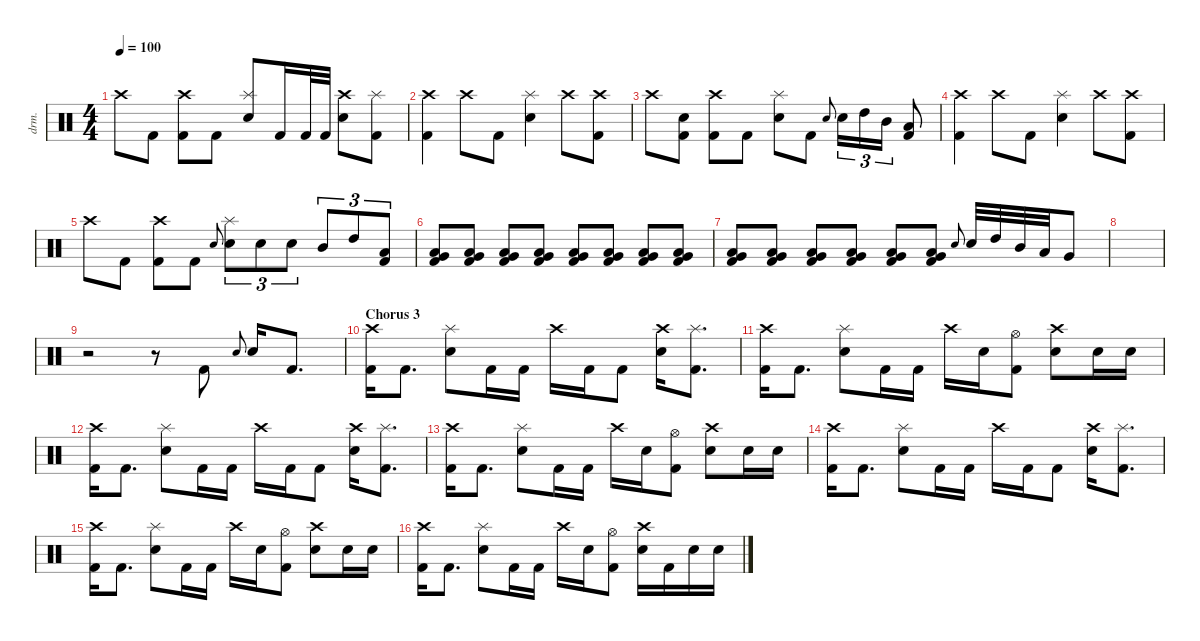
\defaultSystemsLayout 4
\hideDynamics
\bracketExtendMode nobrackets
\otherSystemsTrackNameOrientation horizontal
\track ("Jorge" "drm.") {instrument percussion}
\staff {score}
\articulation defaults
\ts (4 4)
\tempo 100
\clef neutral
\ks c "Crash high (hit)".8{dy mf beam Down} "Kick (hit) 2".8{beam Down}
("Kick (hit) 2" "Crash high (hit)").8{beam Down} "Kick (hit) 2".8{beam Down} ("Splash (hit)" "Snare (hit) 2").8{beam Up} "Kick (hit) 2".16{beam Up} "Kick (hit) 2".32{beam Up} "Kick (hit) 2".32{beam Up} ("Crash high (hit)" "Snare (hit) 2").8{beam Down} ("Kick (hit) 2" "Splash (hit)").8{beam Down} |
("Kick (hit) 2" "Crash high (hit)").4{beam Down} "Crash high (hit)".8{beam Down} "Kick (hit) 2".8{beam Down} ("Snare (hit) 2" "Splash (hit)").4{beam Down} "Crash high (hit)".8{beam Down} ("Crash high (hit)" "Kick (hit) 2").8{beam Down} |
"Crash high (hit)".8{beam Down} ("Kick (hit) 2" "Snare (hit) 2").8{beam Down} ("Kick (hit) 2" "Crash high (hit)").8{beam Down} "Kick (hit) 2".8{beam Down} ("Splash (hit)" "Snare (hit) 2").8{beam Down} "Kick (hit) 2".8{beam Down} "Snare (hit) 2".8{gr onbeat beam Up} "Snare (hit) 2".16{tu (3 2) beam Down} "High Tom (hit)".16{tu (3 2) beam Down} "Mid Tom (hit)".16{tu (3 2) beam Down} ("Low Tom (hit)" "Kick (hit) 2").8{beam Up} |
("Kick (hit) 2" "Crash high (hit)").4{beam Down} "Crash high (hit)".8{beam Down} "Kick (hit) 2".8{beam Down} ("Snare (hit) 2" "Splash (hit)").4{beam Down} "Crash high (hit)".8{beam Down} ("Crash high (hit)" "Kick (hit) 2").8{beam Down} |
"Crash high (hit)".8{beam Down} "Kick (hit) 2".8{beam Down} ("Kick (hit) 2" "Crash high (hit)").8{beam Down} "Kick (hit) 2".8{beam Down} "Snare (hit) 2".8{gr onbeat beam Up} ("Snare (hit) 2" "Splash (hit)").8{tu (3 2) beam Down} "Snare (hit) 2".8{tu (3 2) beam Down} "Snare (hit) 2".8{tu (3 2) beam Down} "Mid Tom (hit)".8{tu (3 2) beam Up} "High Tom (hit)".8{tu (3 2) beam Up} ("Low Tom (hit)" "Kick (hit) 2").8{tu (3 2) beam Up} |
("Kick (hit) 2" "Very Low Tom (hit)" "Low Tom (hit)").8{beam Up} ("Kick (hit) 2" "Very Low Tom (hit)" "Low Tom (hit)").8{beam Up} ("Kick (hit) 2" "Very Low Tom (hit)" "Low Tom (hit)").8{beam Up} ("Kick (hit) 2" "Very Low Tom (hit)" "Low Tom (hit)").8{beam Up} ("Kick (hit) 2" "Very Low Tom (hit)" "Low Tom (hit)").8{beam Up} ("Kick (hit) 2" "Very Low Tom (hit)" "Low Tom (hit)").8{beam Up} ("Kick (hit) 2" "Very Low Tom (hit)" "Low Tom (hit)").8{beam Up} ("Kick (hit) 2" "Very Low Tom (hit)" "Low Tom (hit)").8{beam Up} |
("Kick (hit) 2" "Very Low Tom (hit)" "Low Tom (hit)").8{beam Up} ("Kick (hit) 2" "Very Low Tom (hit)" "Low Tom (hit)").8{beam Up} ("Kick (hit) 2" "Very Low Tom (hit)" "Low Tom (hit)").8{beam Up} ("Kick (hit) 2" "Very Low Tom (hit)" "Low Tom (hit)").8{beam Up} ("Kick (hit) 2" "Very Low Tom (hit)" "Low Tom (hit)").8{beam Up} ("Kick (hit) 2" "Very Low Tom (hit)" "Low Tom (hit)").8{beam Up} "Snare (hit) 2".8{gr onbeat beam Up} "Snare (hit) 2".32{beam Up} "High Tom (hit)".32{beam Up} "Mid Tom (hit)".32{beam Up} "Low Tom (hit)".32{beam Up} "Very Low Tom (hit)".8{beam Up} |
|
r.2{beam Down} r.8{beam Down} "Kick (hit) 2".8{beam Up} "Snare (hit) 2".8{gr onbeat beam Up} "Snare (hit) 2".16{beam Up} "Kick (hit) 2".8{d beam Up} |
\section ("" "Chorus 3")
("Kick (hit) 2" "Crash high (hit)").16{beam Down} "Kick (hit) 2".8{d beam Down} ("Snare (hit) 2" "Splash (hit)").8{beam Down} "Kick (hit) 2".16{beam Down} "Kick (hit) 2".16{beam Down} "Crash high (hit)".16{beam Down} "Kick (hit) 2".16{beam Down} "Kick (hit) 2".8{beam Down} ("Snare (hit) 2" "Crash high (hit)").16{beam Down} ("Kick (hit) 2" "Splash (hit)").8{d beam Down} |
("Kick (hit) 2" "Crash high (hit)").16{beam Down} "Kick (hit) 2".8{d beam Down} ("Snare (hit) 2" "Splash (hit)").8{beam Down} "Kick (hit) 2".16{beam Down} "Kick (hit) 2".16{beam Down} "Crash high (hit)".16{beam Down} "Snare (hit) 2".16{beam Down} ("Kick (hit) 2" "Hi-Hat (open)").8{beam Down} ("Snare (hit) 2" "Crash high (hit)").8{beam Down} "Snare (hit) 2".16{beam Down} "Snare (hit) 2".16{beam Down} |
("Kick (hit) 2" "Crash high (hit)").16{beam Down} "Kick (hit) 2".8{d beam Down} ("Snare (hit) 2" "Splash (hit)").8{beam Down} "Kick (hit) 2".16{beam Down} "Kick (hit) 2".16{beam Down} "Crash high (hit)".16{beam Down} "Kick (hit) 2".16{beam Down} "Kick (hit) 2".8{beam Down} ("Snare (hit) 2" "Crash high (hit)").16{beam Down} ("Kick (hit) 2" "Splash (hit)").8{d beam Down} |
("Kick (hit) 2" "Crash high (hit)").16{beam Down} "Kick (hit) 2".8{d beam Down} ("Snare (hit) 2" "Splash (hit)").8{beam Down} "Kick (hit) 2".16{beam Down} "Kick (hit) 2".16{beam Down} "Crash high (hit)".16{beam Down} "Snare (hit) 2".16{beam Down} ("Kick (hit) 2" "Hi-Hat (open)").8{beam Down} ("Snare (hit) 2" "Crash high (hit)").8{beam Down} "Snare (hit) 2".16{beam Down} "Snare (hit) 2".16{beam Down} |
("Kick (hit) 2" "Crash high (hit)").16{beam Down} "Kick (hit) 2".8{d beam Down} ("Snare (hit) 2" "Splash (hit)").8{beam Down} "Kick (hit) 2".16{beam Down} "Kick (hit) 2".16{beam Down} "Crash high (hit)".16{beam Down} "Kick (hit) 2".16{beam Down} "Kick (hit) 2".8{beam Down} ("Snare (hit) 2" "Crash high (hit)").16{beam Down} ("Kick (hit) 2" "Splash (hit)").8{d beam Down} |
("Kick (hit) 2" "Crash high (hit)").16{beam Down} "Kick (hit) 2".8{d beam Down} ("Snare (hit) 2" "Splash (hit)").8{beam Down} "Kick (hit) 2".16{beam Down} "Kick (hit) 2".16{beam Down} "Crash high (hit)".16{beam Down} "Snare (hit) 2".16{beam Down} ("Kick (hit) 2" "Hi-Hat (open)").8{beam Down} ("Snare (hit) 2" "Crash high (hit)").8{beam Down} "Snare (hit) 2".16{beam Down} "Snare (hit) 2".16{beam Down} |
("Kick (hit) 2" "Crash high (hit)").16{beam Down} "Kick (hit) 2".8{d beam Down} ("Snare (hit) 2" "Splash (hit)").8{beam Down} "Kick (hit) 2".16{beam Down} "Kick (hit) 2".16{beam Down} "Crash high (hit)".16{beam Down} "Snare (hit) 2".16{beam Down} ("Kick (hit) 2" "Hi-Hat (open)").8{beam Down} ("Snare (hit) 2" "Crash high (hit)").16{beam Down} "Kick (hit) 2".16{beam Down} "Snare (hit) 2".16{beam Down} "Snare (hit) 2".16{beam Down}
